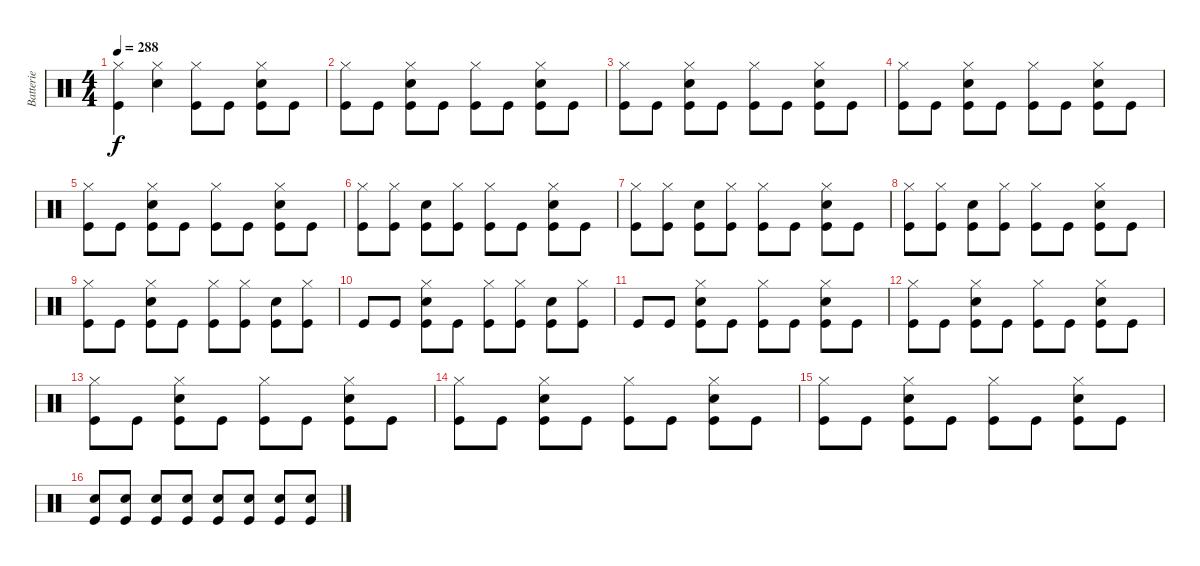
\track ("Batterie" "Batterie") {instrument percussion}
\staff {score}
\articulation defaults
\ts (4 4)
\tempo 288
\clef neutral
\ks c
("Hi-Hat (closed)" "Kick (hit)").4{dy f} ("Hi-Hat (closed)" "Snare (hit) 2").4 ("Hi-Hat (closed)" "Kick (hit)").8 "Kick (hit)".8 ("Hi-Hat (closed)" "Snare (hit) 2" "Kick (hit)").8 "Kick (hit)".8 |
("Hi-Hat (closed)" "Kick (hit)").8 "Kick (hit)".8 ("Hi-Hat (closed)" "Snare (hit) 2" "Kick (hit)").8 "Kick (hit)".8 ("Hi-Hat (closed)" "Kick (hit)").8 "Kick (hit)".8 ("Hi-Hat (closed)" "Snare (hit) 2" "Kick (hit)").8 "Kick (hit)".8 |
("Hi-Hat (closed)" "Kick (hit)").8 "Kick (hit)".8 ("Hi-Hat (closed)" "Snare (hit) 2" "Kick (hit)").8 "Kick (hit)".8 ("Hi-Hat (closed)" "Kick (hit)").8 "Kick (hit)".8 ("Hi-Hat (closed)" "Snare (hit) 2" "Kick (hit)").8 "Kick (hit)".8 |
("Hi-Hat (closed)" "Kick (hit)").8 "Kick (hit)".8 ("Hi-Hat (closed)" "Snare (hit) 2" "Kick (hit)").8 "Kick (hit)".8 ("Hi-Hat (closed)" "Kick (hit)").8 "Kick (hit)".8 ("Hi-Hat (closed)" "Snare (hit) 2" "Kick (hit)").8 "Kick (hit)".8 |
("Hi-Hat (closed)" "Kick (hit)").8 "Kick (hit)".8 ("Hi-Hat (closed)" "Snare (hit) 2" "Kick (hit)").8 "Kick (hit)".8 ("Hi-Hat (closed)" "Kick (hit)").8 "Kick (hit)".8 ("Hi-Hat (closed)" "Snare (hit) 2" "Kick (hit)").8 "Kick (hit)".8 |
("Hi-Hat (closed)" "Kick (hit)").8 ("Hi-Hat (closed)" "Kick (hit)").8 ("Snare (hit) 2" "Kick (hit)").8 ("Hi-Hat (closed)" "Kick (hit)").8 ("Hi-Hat (closed)" "Kick (hit)").8 "Kick (hit)".8 ("Hi-Hat (closed)" "Snare (hit) 2" "Kick (hit)").8 "Kick (hit)".8 |
("Hi-Hat (closed)" "Kick (hit)").8 ("Hi-Hat (closed)" "Kick (hit)").8 ("Snare (hit) 2" "Kick (hit)").8 ("Hi-Hat (closed)" "Kick (hit)").8 ("Hi-Hat (closed)" "Kick (hit)").8 "Kick (hit)".8 ("Hi-Hat (closed)" "Snare (hit) 2" "Kick (hit)").8 "Kick (hit)".8 |
("Hi-Hat (closed)" "Kick (hit)").8 ("Hi-Hat (closed)" "Kick (hit)").8 ("Snare (hit) 2" "Kick (hit)").8 ("Hi-Hat (closed)" "Kick (hit)").8 ("Hi-Hat (closed)" "Kick (hit)").8 "Kick (hit)".8 ("Hi-Hat (closed)" "Snare (hit) 2" "Kick (hit)").8 "Kick (hit)".8 |
("Hi-Hat (closed)" "Kick (hit)").8 "Kick (hit)".8 ("Hi-Hat (closed)" "Snare (hit) 2" "Kick (hit)").8 "Kick (hit)".8 ("Hi-Hat (closed)" "Kick (hit)").8 ("Hi-Hat (closed)" "Kick (hit)").8 ("Snare (hit) 2" "Kick (hit)").8 ("Hi-Hat (closed)" "Kick (hit)").8 |
"Kick (hit)".8 "Kick (hit)".8 ("Hi-Hat (closed)" "Snare (hit) 2" "Kick (hit)").8 "Kick (hit)".8 ("Hi-Hat (closed)" "Kick (hit)").8 ("Hi-Hat (closed)" "Kick (hit)").8 ("Snare (hit) 2" "Kick (hit)").8 ("Hi-Hat (closed)" "Kick (hit)").8 |
"Kick (hit)".8 "Kick (hit)".8 ("Hi-Hat (closed)" "Snare (hit) 2" "Kick (hit)").8 "Kick (hit)".8 ("Hi-Hat (closed)" "Kick (hit)").8 "Kick (hit)".8 ("Hi-Hat (closed)" "Snare (hit) 2" "Kick (hit)").8 "Kick (hit)".8 |
("Hi-Hat (closed)" "Kick (hit)").8 "Kick (hit)".8 ("Hi-Hat (closed)" "Snare (hit) 2" "Kick (hit)").8 "Kick (hit)".8 ("Hi-Hat (closed)" "Kick (hit)").8 "Kick (hit)".8 ("Hi-Hat (closed)" "Snare (hit) 2" "Kick (hit)").8 "Kick (hit)".8 |
("Hi-Hat (closed)" "Kick (hit)").8 "Kick (hit)".8 ("Hi-Hat (closed)" "Snare (hit) 2" "Kick (hit)").8 "Kick (hit)".8 ("Hi-Hat (closed)" "Kick (hit)").8 "Kick (hit)".8 ("Hi-Hat (closed)" "Snare (hit) 2" "Kick (hit)").8 "Kick (hit)".8 |
("Hi-Hat (closed)" "Kick (hit)").8 "Kick (hit)".8 ("Hi-Hat (closed)" "Snare (hit) 2" "Kick (hit)").8 "Kick (hit)".8 ("Hi-Hat (closed)" "Kick (hit)").8 "Kick (hit)".8 ("Hi-Hat (closed)" "Snare (hit) 2" "Kick (hit)").8 "Kick (hit)".8 |
("Hi-Hat (closed)" "Kick (hit)").8 "Kick (hit)".8 ("Hi-Hat (closed)" "Snare (hit) 2" "Kick (hit)").8 "Kick (hit)".8 ("Hi-Hat (closed)" "Kick (hit)").8 "Kick (hit)".8 ("Hi-Hat (closed)" "Snare (hit) 2" "Kick (hit)").8 "Kick (hit)".8 |
("Snare (hit) 2" "Kick (hit)").8 ("Snare (hit) 2" "Kick (hit)").8 ("Snare (hit) 2" "Kick (hit)").8 ("Snare (hit) 2" "Kick (hit)").8 ("Snare (hit) 2" "Kick (hit)").8 ("Snare (hit) 2" "Kick (hit)").8 ("Snare (hit) 2" "Kick (hit)").8 ("Snare (hit) 2" "Kick (hit)").8
